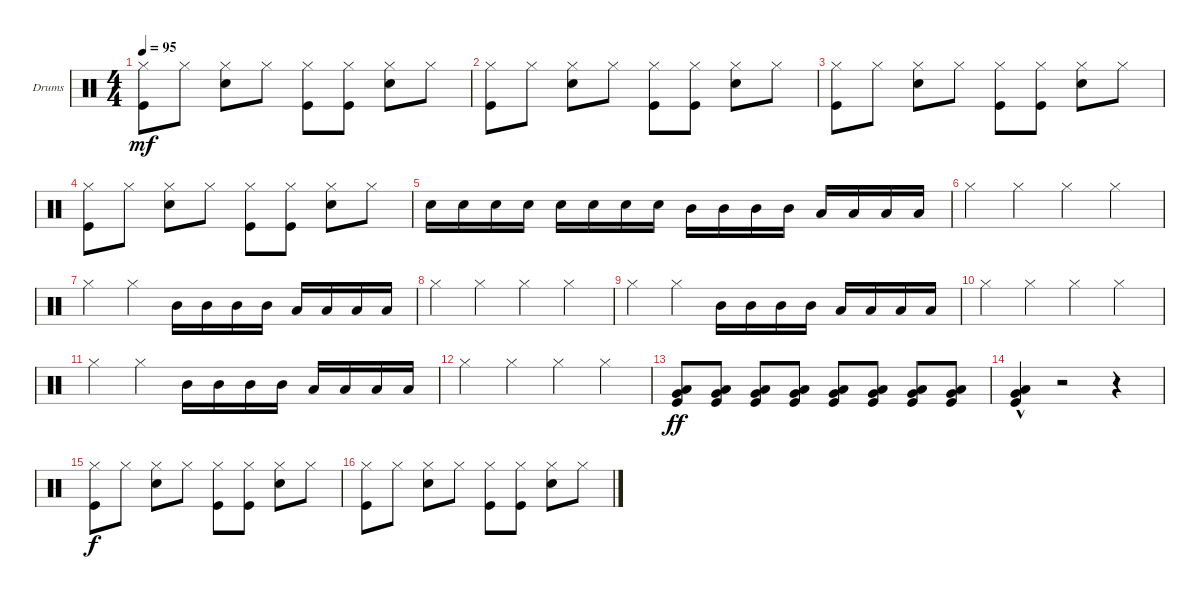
\defaultSystemsLayout 4
\bracketExtendMode groupsimilarinstruments
\firstSystemTrackNameOrientation horizontal
\otherSystemsTrackNameOrientation horizontal
\track ("Drumkit" "Drums") {instrument percussion}
\staff {score}
\articulation defaults
\ts (4 4)
\tempo 95
\clef neutral
\ks c
("Kick (hit)" "Hi-Hat (closed)").8{dy mf} "Hi-Hat (closed)".8 ("Hi-Hat (closed)" "Snare (hit) 2").8 "Hi-Hat (closed)".8 ("Hi-Hat (closed)" "Kick (hit)").8 ("Hi-Hat (closed)" "Kick (hit)").8 ("Hi-Hat (closed)" "Snare (hit) 2").8 "Hi-Hat (closed)".8 |
("Kick (hit)" "Hi-Hat (closed)").8 "Hi-Hat (closed)".8 ("Hi-Hat (closed)" "Snare (hit) 2").8 "Hi-Hat (closed)".8 ("Hi-Hat (closed)" "Kick (hit)").8 ("Hi-Hat (closed)" "Kick (hit)").8 ("Hi-Hat (closed)" "Snare (hit) 2").8 "Hi-Hat (closed)".8 |
("Kick (hit)" "Hi-Hat (closed)").8 "Hi-Hat (closed)".8 ("Hi-Hat (closed)" "Snare (hit) 2").8 "Hi-Hat (closed)".8 ("Hi-Hat (closed)" "Kick (hit)").8 ("Hi-Hat (closed)" "Kick (hit)").8 ("Hi-Hat (closed)" "Snare (hit) 2").8 "Hi-Hat (closed)".8 |
("Kick (hit)" "Hi-Hat (closed)").8 "Hi-Hat (closed)".8 ("Hi-Hat (closed)" "Snare (hit) 2").8 "Hi-Hat (closed)".8 ("Hi-Hat (closed)" "Kick (hit)").8 ("Hi-Hat (closed)" "Kick (hit)").8 ("Hi-Hat (closed)" "Snare (hit) 2").8 "Hi-Hat (closed)".8 |
"Snare (hit) 2".16 "Snare (hit) 2".16 "Snare (hit) 2".16 "Snare (hit) 2".16 "Snare (hit) 2".16 "Snare (hit) 2".16 "Snare (hit) 2".16 "Snare (hit) 2".16 "Mid Tom (hit)".16 "Mid Tom (hit)".16 "Mid Tom (hit)".16 "Mid Tom (hit)".16 "Low Tom (hit)".16 "Low Tom (hit)".16 "Low Tom (hit)".16 "Low Tom (hit)".16 |
"Hi-Hat (closed)".4 "Hi-Hat (closed)".4 "Hi-Hat (closed)".4 "Hi-Hat (closed)".4 |
"Hi-Hat (closed)".4 "Hi-Hat (closed)".4 "Mid Tom (hit)".16 "Mid Tom (hit)".16 "Mid Tom (hit)".16 "Mid Tom (hit)".16 "Low Tom (hit)".16 "Low Tom (hit)".16 "Low Tom (hit)".16 "Low Tom (hit)".16 |
"Hi-Hat (closed)".4 "Hi-Hat (closed)".4 "Hi-Hat (closed)".4 "Hi-Hat (closed)".4 |
"Hi-Hat (closed)".4 "Hi-Hat (closed)".4 "Mid Tom (hit)".16 "Mid Tom (hit)".16 "Mid Tom (hit)".16 "Mid Tom (hit)".16 "Low Tom (hit)".16 "Low Tom (hit)".16 "Low Tom (hit)".16 "Low Tom (hit)".16 |
"Hi-Hat (closed)".4 "Hi-Hat (closed)".4 "Hi-Hat (closed)".4 "Hi-Hat (closed)".4 |
"Hi-Hat (closed)".4 "Hi-Hat (closed)".4 "Mid Tom (hit)".16 "Mid Tom (hit)".16 "Mid Tom (hit)".16 "Mid Tom (hit)".16 "Low Tom (hit)".16 "Low Tom (hit)".16 "Low Tom (hit)".16 "Low Tom (hit)".16 |
"Hi-Hat (closed)".4 "Hi-Hat (closed)".4 "Hi-Hat (closed)".4 "Hi-Hat (closed)".4 |
("Kick (hit)" "Low Tom (hit)" "Very Low Tom (hit)").8{dy ff} ("Low Tom (hit)" "Kick (hit)" "Very Low Tom (hit)").8 ("Kick (hit)" "Low Tom (hit)" "Very Low Tom (hit)").8 ("Low Tom (hit)" "Kick (hit)" "Very Low Tom (hit)").8 ("Kick (hit)" "Low Tom (hit)" "Very Low Tom (hit)").8 ("Low Tom (hit)" "Kick (hit)" "Very Low Tom (hit)").8 ("Kick (hit)" "Low Tom (hit)" "Very Low Tom (hit)").8 ("Low Tom (hit)" "Kick (hit)" "Very Low Tom (hit)").8 |
("Kick (hit)" "Low Tom (hit)" "Very Low Tom (hit)"{hac}).4 r.2 r.4 |
("Kick (hit)" "Hi-Hat (closed)").8{dy f} "Hi-Hat (closed)".8 ("Hi-Hat (closed)" "Snare (hit) 2").8 "Hi-Hat (closed)".8 ("Hi-Hat (closed)" "Kick (hit)").8 ("Hi-Hat (closed)" "Kick (hit)").8 ("Hi-Hat (closed)" "Snare (hit) 2").8 "Hi-Hat (closed)".8 |
("Kick (hit)" "Hi-Hat (closed)").8 "Hi-Hat (closed)".8 ("Hi-Hat (closed)" "Snare (hit) 2").8 "Hi-Hat (closed)".8 ("Hi-Hat (closed)" "Kick (hit)").8 ("Hi-Hat (closed)" "Kick (hit)").8 ("Hi-Hat (closed)" "Snare (hit) 2").8 "Hi-Hat (closed)".8
